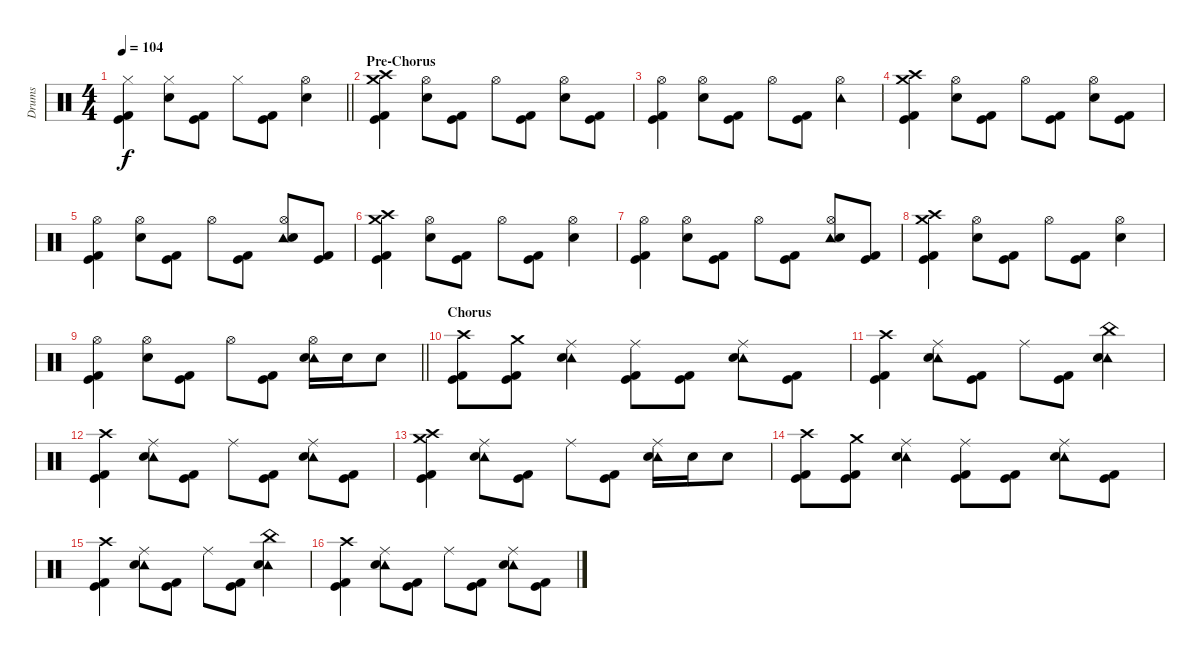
\track ("Drums" "Drums") {instrument percussion}
\staff {score}
\articulation defaults
\ts (4 4)
\tempo 104
\clef neutral
\barLineRight lightlight
\ks c
("Hi-Hat (closed)" "Kick (hit)" "Kick (hit) 2").4{dy f} ("Hi-Hat (closed)" "Electric Snare (hit)").8 ("Kick (hit)" "Kick (hit) 2").8 "Hi-Hat (closed)".8 ("Kick (hit)" "Kick (hit) 2").8 ("Hi-Hat (open)" "Electric Snare (hit)").4 |
\section ("" "Pre-Chorus")
("Crash medium (hit)" "Crash high (hit)" "Kick (hit)" "Kick (hit) 2").4 ("Hi-Hat (open)" "Electric Snare (hit)").8 ("Kick (hit)" "Kick (hit) 2").8 "Hi-Hat (open)".8 ("Kick (hit)" "Kick (hit) 2").8 ("Hi-Hat (open)" "Electric Snare (hit)").8 ("Kick (hit)" "Kick (hit) 2").8 |
("Hi-Hat (open)" "Kick (hit)" "Kick (hit) 2").4 ("Hi-Hat (open)" "Electric Snare (hit)").8 ("Kick (hit)" "Kick (hit) 2").8 "Hi-Hat (open)".8 ("Kick (hit)" "Kick (hit) 2").8 ("Hi-Hat (open)" "Tambourine (hit)").4 |
("Crash medium (hit)" "Crash high (hit)" "Kick (hit)" "Kick (hit) 2").4 ("Hi-Hat (open)" "Electric Snare (hit)").8 ("Kick (hit)" "Kick (hit) 2").8 "Hi-Hat (open)".8 ("Kick (hit)" "Kick (hit) 2").8 ("Hi-Hat (open)" "Electric Snare (hit)").8 ("Kick (hit)" "Kick (hit) 2").8 |
("Hi-Hat (open)" "Kick (hit)" "Kick (hit) 2").4 ("Hi-Hat (open)" "Electric Snare (hit)").8 ("Kick (hit)" "Kick (hit) 2").8 "Hi-Hat (open)".8 ("Kick (hit)" "Kick (hit) 2").8 ("Hi-Hat (open)" "Tambourine (hit)" "Electric Snare (hit)").8 ("Kick (hit)" "Kick (hit) 2").8 |
("Crash medium (hit)" "Crash high (hit)" "Kick (hit)" "Kick (hit) 2").4 ("Hi-Hat (open)" "Electric Snare (hit)").8 ("Kick (hit)" "Kick (hit) 2").8 "Hi-Hat (open)".8 ("Kick (hit)" "Kick (hit) 2").8 ("Hi-Hat (open)" "Electric Snare (hit)").4 |
("Hi-Hat (open)" "Kick (hit)" "Kick (hit) 2").4 ("Hi-Hat (open)" "Electric Snare (hit)").8 ("Kick (hit)" "Kick (hit) 2").8 "Hi-Hat (open)".8 ("Kick (hit)" "Kick (hit) 2").8 ("Hi-Hat (open)" "Tambourine (hit)" "Electric Snare (hit)").8 ("Kick (hit)" "Kick (hit) 2").8 |
("Crash medium (hit)" "Crash high (hit)" "Kick (hit)" "Kick (hit) 2").4 ("Hi-Hat (open)" "Electric Snare (hit)").8 ("Kick (hit)" "Kick (hit) 2").8 "Hi-Hat (open)".8 ("Kick (hit)" "Kick (hit) 2").8 ("Hi-Hat (open)" "Electric Snare (hit)").4 |
\barLineRight lightlight
("Hi-Hat (open)" "Kick (hit)" "Kick (hit) 2").4 ("Hi-Hat (open)" "Electric Snare (hit)").8 ("Kick (hit)" "Kick (hit) 2").8 "Hi-Hat (open)".8 ("Kick (hit)" "Kick (hit) 2").8 ("Hi-Hat (open)" "Tambourine (hit)" "Electric Snare (hit)").16 "Electric Snare (hit)".16 "Electric Snare (hit)".8 |
\section ("" "Chorus")
("Crash high (hit)" "Kick (hit)" "Kick (hit) 2").8 ("Crash medium (hit)" "Kick (hit)" "Kick (hit) 2").8 ("Ride (middle)" "Tambourine (hit)" "Electric Snare (hit)").4 ("Ride (middle)" "Kick (hit)" "Kick (hit) 2").8 ("Kick (hit)" "Kick (hit) 2").8 ("Ride (middle)" "Tambourine (hit)" "Electric Snare (hit)").8 ("Kick (hit)" "Kick (hit) 2").8 |
("Crash high (hit)" "Kick (hit)" "Kick (hit) 2").4 ("Ride (middle)" "Tambourine (hit)" "Electric Snare (hit)").8 ("Kick (hit)" "Kick (hit) 2").8 "Ride (middle)".8 ("Kick (hit)" "Kick (hit) 2").8 ("China (hit)" "Tambourine (hit)" "Electric Snare (hit)").4 |
("Crash high (hit)" "Kick (hit)" "Kick (hit) 2").4 ("Ride (middle)" "Tambourine (hit)" "Electric Snare (hit)").8 ("Kick (hit)" "Kick (hit) 2").8 "Ride (middle)".8 ("Kick (hit)" "Kick (hit) 2").8 ("Ride (middle)" "Tambourine (hit)" "Electric Snare (hit)").8 ("Kick (hit)" "Kick (hit) 2").8 |
("Crash high (hit)" "Crash medium (hit)" "Kick (hit)" "Kick (hit) 2").4 ("Ride (middle)" "Tambourine (hit)" "Electric Snare (hit)").8 ("Kick (hit)" "Kick (hit) 2").8 "Ride (middle)".8 ("Kick (hit)" "Kick (hit) 2").8 ("Ride (middle)" "Tambourine (hit)" "Electric Snare (hit)").16 "Electric Snare (hit)".16 "Electric Snare (hit)".8 |
("Crash high (hit)" "Kick (hit)" "Kick (hit) 2").8 ("Crash medium (hit)" "Kick (hit)" "Kick (hit) 2").8 ("Ride (middle)" "Tambourine (hit)" "Electric Snare (hit)").4 ("Ride (middle)" "Kick (hit)" "Kick (hit) 2").8 ("Kick (hit)" "Kick (hit) 2").8 ("Ride (middle)" "Tambourine (hit)" "Electric Snare (hit)").8 ("Kick (hit)" "Kick (hit) 2").8 |
("Crash high (hit)" "Kick (hit)" "Kick (hit) 2").4 ("Ride (middle)" "Tambourine (hit)" "Electric Snare (hit)").8 ("Kick (hit)" "Kick (hit) 2").8 "Ride (middle)".8 ("Kick (hit)" "Kick (hit) 2").8 ("China (hit)" "Tambourine (hit)" "Electric Snare (hit)").4 |
("Crash high (hit)" "Kick (hit)" "Kick (hit) 2").4 ("Ride (middle)" "Tambourine (hit)" "Electric Snare (hit)").8 ("Kick (hit)" "Kick (hit) 2").8 "Ride (middle)".8 ("Kick (hit)" "Kick (hit) 2").8 ("Ride (middle)" "Tambourine (hit)" "Electric Snare (hit)").8 ("Kick (hit)" "Kick (hit) 2").8
